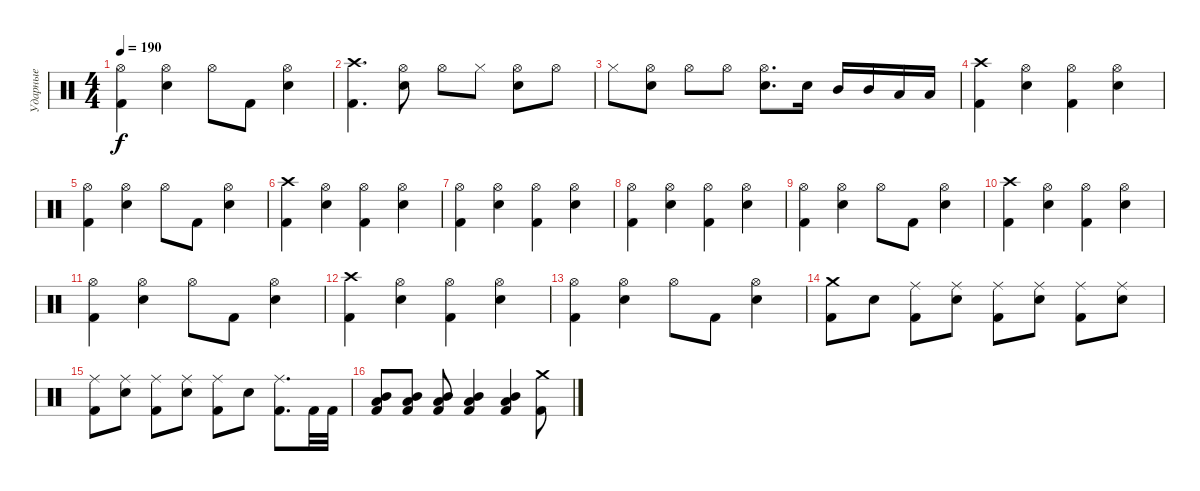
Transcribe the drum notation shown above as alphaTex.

\track ("Ударные" "Ударные") {instrument percussion}
\staff {score}
\articulation defaults
\ts (4 4)
\tempo 190
\clef neutral
\ks c
("Hi-Hat (open)" "Kick (hit) 2").4{dy f} ("Hi-Hat (open)" "Electric Snare (hit)").4 "Hi-Hat (open)".8 "Kick (hit) 2".8 ("Hi-Hat (open)" "Electric Snare (hit)").4 |
("Crash high (hit)" "Kick (hit) 2").4{d} ("Hi-Hat (open)" "Electric Snare (hit)").8 "Hi-Hat (open)".8 "Hi-Hat (closed)".8 ("Hi-Hat (open)" "Electric Snare (hit)").8 "Hi-Hat (open)".8 |
"Hi-Hat (closed)".8 ("Hi-Hat (open)" "Electric Snare (hit)").8 "Hi-Hat (open)".8 "Hi-Hat (open)".8 ("Hi-Hat (open)" "Electric Snare (hit)").8{d} "Electric Snare (hit)".16 "Mid Tom (hit)".16 "Mid Tom (hit)".16 "Low Tom (hit)".16 "Low Tom (hit)".16 |
("Crash high (hit)" "Kick (hit) 2").4 ("Hi-Hat (open)" "Electric Snare (hit)").4 ("Hi-Hat (open)" "Kick (hit) 2").4 ("Hi-Hat (open)" "Electric Snare (hit)").4 |
("Hi-Hat (open)" "Kick (hit) 2").4 ("Hi-Hat (open)" "Electric Snare (hit)").4 "Hi-Hat (open)".8 "Kick (hit) 2".8 ("Hi-Hat (open)" "Electric Snare (hit)").4 |
("Crash high (hit)" "Kick (hit) 2").4 ("Hi-Hat (open)" "Electric Snare (hit)").4 ("Hi-Hat (open)" "Kick (hit) 2").4 ("Hi-Hat (open)" "Electric Snare (hit)").4 |
("Hi-Hat (open)" "Kick (hit) 2").4 ("Hi-Hat (open)" "Electric Snare (hit)").4 ("Hi-Hat (open)" "Kick (hit) 2").4 ("Hi-Hat (open)" "Electric Snare (hit)").4 |
("Hi-Hat (open)" "Kick (hit) 2").4 ("Hi-Hat (open)" "Electric Snare (hit)").4 ("Hi-Hat (open)" "Kick (hit) 2").4 ("Hi-Hat (open)" "Electric Snare (hit)").4 |
("Hi-Hat (open)" "Kick (hit) 2").4 ("Hi-Hat (open)" "Electric Snare (hit)").4 "Hi-Hat (open)".8 "Kick (hit) 2".8 ("Hi-Hat (open)" "Electric Snare (hit)").4 |
("Crash high (hit)" "Kick (hit) 2").4 ("Hi-Hat (open)" "Electric Snare (hit)").4 ("Hi-Hat (open)" "Kick (hit) 2").4 ("Hi-Hat (open)" "Electric Snare (hit)").4 |
("Hi-Hat (open)" "Kick (hit) 2").4 ("Hi-Hat (open)" "Electric Snare (hit)").4 "Hi-Hat (open)".8 "Kick (hit) 2".8 ("Hi-Hat (open)" "Electric Snare (hit)").4 |
("Crash high (hit)" "Kick (hit) 2").4 ("Hi-Hat (open)" "Electric Snare (hit)").4 ("Hi-Hat (open)" "Kick (hit) 2").4 ("Hi-Hat (open)" "Electric Snare (hit)").4 |
("Hi-Hat (open)" "Kick (hit) 2").4 ("Hi-Hat (open)" "Electric Snare (hit)").4 "Hi-Hat (open)".8 "Kick (hit) 2".8 ("Hi-Hat (open)" "Electric Snare (hit)").4 |
("Crash medium (hit)" "Kick (hit) 2").8 "Electric Snare (hit)".8 ("Ride (middle)" "Kick (hit) 2").8 ("Ride (middle)" "Electric Snare (hit)").8 ("Ride (middle)" "Kick (hit) 2").8 ("Ride (middle)" "Electric Snare (hit)").8 ("Ride (middle)" "Kick (hit) 2").8 ("Ride (middle)" "Electric Snare (hit)").8 |
("Ride (middle)" "Kick (hit) 2").8 ("Ride (middle)" "Electric Snare (hit)").8 ("Ride (middle)" "Kick (hit) 2").8 ("Ride (middle)" "Electric Snare (hit)").8 ("Ride (middle)" "Kick (hit) 2").8 "Electric Snare (hit)".8 ("Ride (middle)" "Kick (hit) 2").8{d} "Kick (hit) 2".32 "Kick (hit) 2".32 |
("Mid Tom (hit)" "Low Tom (hit)" "Kick (hit) 2").8 ("Mid Tom (hit)" "Low Tom (hit)" "Kick (hit) 2").8 ("Mid Tom (hit)" "Low Tom (hit)" "Kick (hit) 2").8 ("Mid Tom (hit)" "Low Tom (hit)" "Kick (hit) 2").4 ("Mid Tom (hit)" "Low Tom (hit)" "Kick (hit) 2").4 ("Crash medium (hit)" "Kick (hit) 2").8
